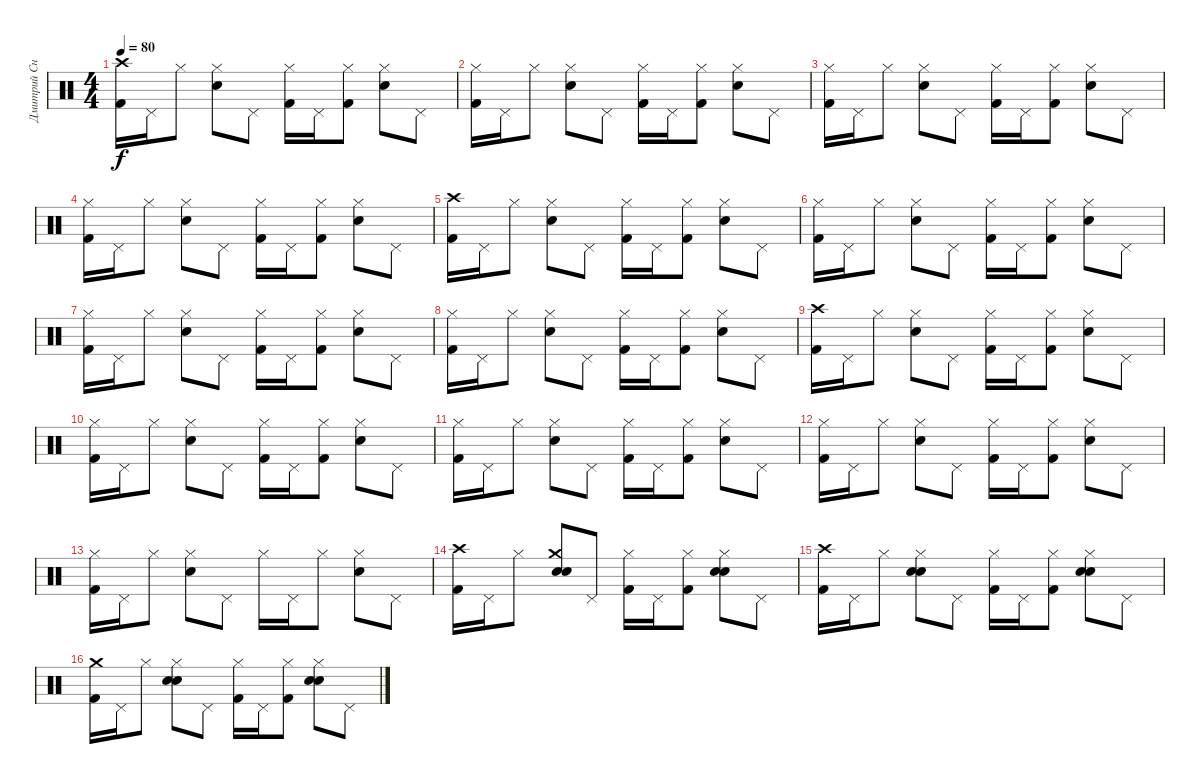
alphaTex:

\track ("Дмитрий Снэйк" "Дмитрий Сн") {instrument percussion}
\staff {score}
\articulation defaults
\ts (4 4)
\tempo 80
\clef neutral
\ks c
("Crash high (hit)" "Kick (hit) 2").16{dy f} "Pedal Hi-Hat (hit)".16 "Hi-Hat (closed)".8 ("Hi-Hat (closed)" "Snare (hit) 2").8 "Pedal Hi-Hat (hit)".8 ("Hi-Hat (closed)" "Kick (hit) 2").16 "Pedal Hi-Hat (hit)".16 ("Hi-Hat (closed)" "Kick (hit) 2").8 ("Hi-Hat (closed)" "Snare (hit) 2").8 "Pedal Hi-Hat (hit)".8 |
("Hi-Hat (closed)" "Kick (hit) 2").16 "Pedal Hi-Hat (hit)".16 "Hi-Hat (closed)".8 ("Hi-Hat (closed)" "Snare (hit) 2").8 "Pedal Hi-Hat (hit)".8 ("Hi-Hat (closed)" "Kick (hit) 2").16 "Pedal Hi-Hat (hit)".16 ("Hi-Hat (closed)" "Kick (hit) 2").8 ("Hi-Hat (closed)" "Snare (hit) 2").8 "Pedal Hi-Hat (hit)".8 |
("Hi-Hat (closed)" "Kick (hit) 2").16 "Pedal Hi-Hat (hit)".16 "Hi-Hat (closed)".8 ("Hi-Hat (closed)" "Snare (hit) 2").8 "Pedal Hi-Hat (hit)".8 ("Hi-Hat (closed)" "Kick (hit) 2").16 "Pedal Hi-Hat (hit)".16 ("Hi-Hat (closed)" "Kick (hit) 2").8 ("Hi-Hat (closed)" "Snare (hit) 2").8 "Pedal Hi-Hat (hit)".8 |
("Hi-Hat (closed)" "Kick (hit) 2").16 "Pedal Hi-Hat (hit)".16 "Hi-Hat (closed)".8 ("Hi-Hat (closed)" "Snare (hit) 2").8 "Pedal Hi-Hat (hit)".8 ("Hi-Hat (closed)" "Kick (hit) 2").16 "Pedal Hi-Hat (hit)".16 ("Hi-Hat (closed)" "Kick (hit) 2").8 ("Hi-Hat (closed)" "Snare (hit) 2").8 "Pedal Hi-Hat (hit)".8 |
("Crash high (hit)" "Kick (hit) 2").16 "Pedal Hi-Hat (hit)".16 "Hi-Hat (closed)".8 ("Hi-Hat (closed)" "Snare (hit) 2").8 "Pedal Hi-Hat (hit)".8 ("Hi-Hat (closed)" "Kick (hit) 2").16 "Pedal Hi-Hat (hit)".16 ("Hi-Hat (closed)" "Kick (hit) 2").8 ("Hi-Hat (closed)" "Snare (hit) 2").8 "Pedal Hi-Hat (hit)".8 |
("Hi-Hat (closed)" "Kick (hit) 2").16 "Pedal Hi-Hat (hit)".16 "Hi-Hat (closed)".8 ("Hi-Hat (closed)" "Snare (hit) 2").8 "Pedal Hi-Hat (hit)".8 ("Hi-Hat (closed)" "Kick (hit) 2").16 "Pedal Hi-Hat (hit)".16 ("Hi-Hat (closed)" "Kick (hit) 2").8 ("Hi-Hat (closed)" "Snare (hit) 2").8 "Pedal Hi-Hat (hit)".8 |
("Hi-Hat (closed)" "Kick (hit) 2").16 "Pedal Hi-Hat (hit)".16 "Hi-Hat (closed)".8 ("Hi-Hat (closed)" "Snare (hit) 2").8 "Pedal Hi-Hat (hit)".8 ("Hi-Hat (closed)" "Kick (hit) 2").16 "Pedal Hi-Hat (hit)".16 ("Hi-Hat (closed)" "Kick (hit) 2").8 ("Hi-Hat (closed)" "Snare (hit) 2").8 "Pedal Hi-Hat (hit)".8 |
("Hi-Hat (closed)" "Kick (hit) 2").16 "Pedal Hi-Hat (hit)".16 "Hi-Hat (closed)".8 ("Hi-Hat (closed)" "Snare (hit) 2").8 "Pedal Hi-Hat (hit)".8 ("Hi-Hat (closed)" "Kick (hit) 2").16 "Pedal Hi-Hat (hit)".16 ("Hi-Hat (closed)" "Kick (hit) 2").8 ("Hi-Hat (closed)" "Snare (hit) 2").8 "Pedal Hi-Hat (hit)".8 |
("Crash high (hit)" "Kick (hit) 2").16 "Pedal Hi-Hat (hit)".16 "Hi-Hat (closed)".8 ("Hi-Hat (closed)" "Snare (hit) 2").8 "Pedal Hi-Hat (hit)".8 ("Hi-Hat (closed)" "Kick (hit) 2").16 "Pedal Hi-Hat (hit)".16 ("Hi-Hat (closed)" "Kick (hit) 2").8 ("Hi-Hat (closed)" "Snare (hit) 2").8 "Pedal Hi-Hat (hit)".8 |
("Hi-Hat (closed)" "Kick (hit) 2").16 "Pedal Hi-Hat (hit)".16 "Hi-Hat (closed)".8 ("Hi-Hat (closed)" "Snare (hit) 2").8 "Pedal Hi-Hat (hit)".8 ("Hi-Hat (closed)" "Kick (hit) 2").16 "Pedal Hi-Hat (hit)".16 ("Hi-Hat (closed)" "Kick (hit) 2").8 ("Hi-Hat (closed)" "Snare (hit) 2").8 "Pedal Hi-Hat (hit)".8 |
("Hi-Hat (closed)" "Kick (hit) 2").16 "Pedal Hi-Hat (hit)".16 "Hi-Hat (closed)".8 ("Hi-Hat (closed)" "Snare (hit) 2").8 "Pedal Hi-Hat (hit)".8 ("Hi-Hat (closed)" "Kick (hit) 2").16 "Pedal Hi-Hat (hit)".16 ("Hi-Hat (closed)" "Kick (hit) 2").8 ("Hi-Hat (closed)" "Snare (hit) 2").8 "Pedal Hi-Hat (hit)".8 |
("Hi-Hat (closed)" "Kick (hit) 2").16 "Pedal Hi-Hat (hit)".16 "Hi-Hat (closed)".8 ("Hi-Hat (closed)" "Snare (hit) 2").8 "Pedal Hi-Hat (hit)".8 ("Hi-Hat (closed)" "Kick (hit) 2").16 "Pedal Hi-Hat (hit)".16 ("Hi-Hat (closed)" "Kick (hit) 2").8 ("Hi-Hat (closed)" "Snare (hit) 2").8 "Pedal Hi-Hat (hit)".8 |
("Hi-Hat (closed)" "Kick (hit) 2").16 "Pedal Hi-Hat (hit)".16 "Hi-Hat (closed)".8 ("Hi-Hat (closed)" "Snare (hit) 2").8 "Pedal Hi-Hat (hit)".8 "Hi-Hat (closed)".16 "Pedal Hi-Hat (hit)".16 "Hi-Hat (closed)".8 ("Hi-Hat (closed)" "Snare (hit) 2").8 "Pedal Hi-Hat (hit)".8 |
("Crash high (hit)" "Kick (hit) 2").16 "Pedal Hi-Hat (hit)".16 "Hi-Hat (closed)".8 ("Crash medium (hit)" "Electric Snare (hit)" "Snare (hit) 2").8 "Pedal Hi-Hat (hit)".8 ("Hi-Hat (closed)" "Kick (hit) 2").16 "Pedal Hi-Hat (hit)".16 ("Hi-Hat (closed)" "Kick (hit) 2").8 ("Hi-Hat (closed)" "Electric Snare (hit)" "Snare (hit) 2").8 "Pedal Hi-Hat (hit)".8 |
("Crash high (hit)" "Kick (hit) 2").16 "Pedal Hi-Hat (hit)".16 "Hi-Hat (closed)".8 ("Hi-Hat (closed)" "Electric Snare (hit)" "Snare (hit) 2").8 "Pedal Hi-Hat (hit)".8 ("Hi-Hat (closed)" "Kick (hit) 2").16 "Pedal Hi-Hat (hit)".16 ("Hi-Hat (closed)" "Kick (hit) 2").8 ("Hi-Hat (closed)" "Electric Snare (hit)" "Snare (hit) 2").8 "Pedal Hi-Hat (hit)".8 |
("Crash medium (hit)" "Kick (hit) 2").16 "Pedal Hi-Hat (hit)".16 "Hi-Hat (closed)".8 ("Hi-Hat (closed)" "Electric Snare (hit)" "Snare (hit) 2").8 "Pedal Hi-Hat (hit)".8 ("Hi-Hat (closed)" "Kick (hit) 2").16 "Pedal Hi-Hat (hit)".16 ("Hi-Hat (closed)" "Kick (hit) 2").8 ("Hi-Hat (closed)" "Electric Snare (hit)" "Snare (hit) 2").8 "Pedal Hi-Hat (hit)".8
